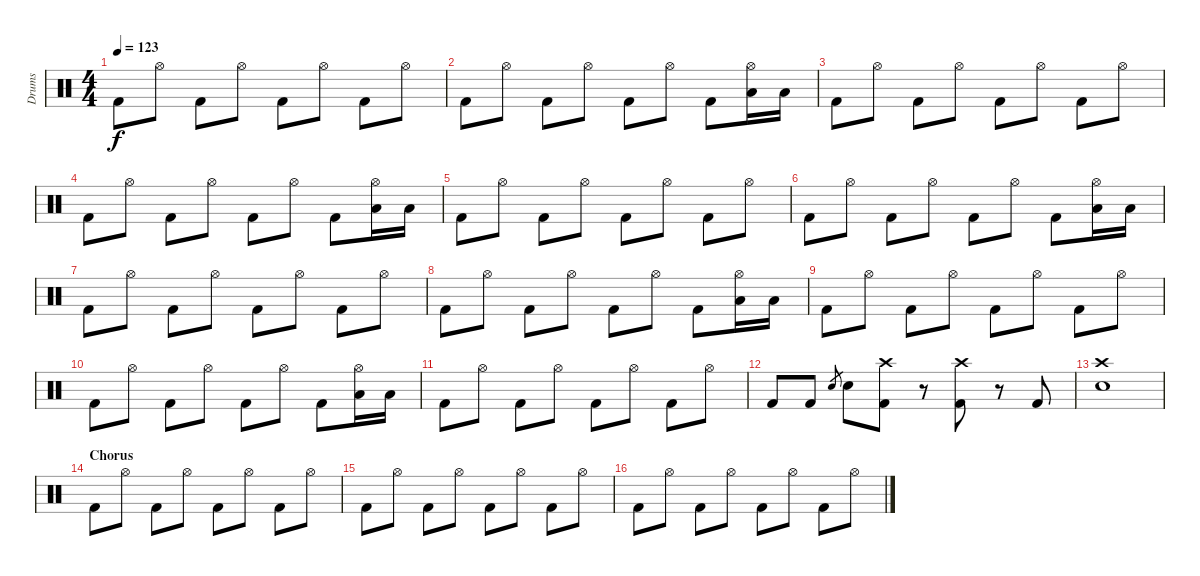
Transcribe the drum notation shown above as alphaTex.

\track ("Drums" "Drums") {instrument percussion}
\staff {score}
\articulation defaults
\ts (4 4)
\tempo 123
\clef neutral
\ks c "Kick (hit) 2".8{dy f} "Hi-Hat (open)".8 "Kick (hit) 2".8 "Hi-Hat (open)".8 "Kick (hit) 2".8 "Hi-Hat (open)".8 "Kick (hit) 2".8 "Hi-Hat (open)".8
|
"Kick (hit) 2".8 "Hi-Hat (open)".8 "Kick (hit) 2".8 "Hi-Hat (open)".8 "Kick (hit) 2".8 "Hi-Hat (open)".8 "Kick (hit) 2".8 ("Hi-Hat (open)" "Low Tom (hit)").16 "Low Tom (hit)".16 |
"Kick (hit) 2".8 "Hi-Hat (open)".8 "Kick (hit) 2".8 "Hi-Hat (open)".8 "Kick (hit) 2".8 "Hi-Hat (open)".8 "Kick (hit) 2".8 "Hi-Hat (open)".8 |
"Kick (hit) 2".8 "Hi-Hat (open)".8 "Kick (hit) 2".8 "Hi-Hat (open)".8 "Kick (hit) 2".8 "Hi-Hat (open)".8 "Kick (hit) 2".8 ("Hi-Hat (open)" "Low Tom (hit)").16 "Low Tom (hit)".16 |
"Kick (hit) 2".8 "Hi-Hat (open)".8 "Kick (hit) 2".8 "Hi-Hat (open)".8 "Kick (hit) 2".8 "Hi-Hat (open)".8 "Kick (hit) 2".8 "Hi-Hat (open)".8 |
"Kick (hit) 2".8 "Hi-Hat (open)".8 "Kick (hit) 2".8 "Hi-Hat (open)".8 "Kick (hit) 2".8 "Hi-Hat (open)".8 "Kick (hit) 2".8 ("Hi-Hat (open)" "Low Tom (hit)").16 "Low Tom (hit)".16 |
"Kick (hit) 2".8 "Hi-Hat (open)".8 "Kick (hit) 2".8 "Hi-Hat (open)".8 "Kick (hit) 2".8 "Hi-Hat (open)".8 "Kick (hit) 2".8 "Hi-Hat (open)".8 |
"Kick (hit) 2".8 "Hi-Hat (open)".8 "Kick (hit) 2".8 "Hi-Hat (open)".8 "Kick (hit) 2".8 "Hi-Hat (open)".8 "Kick (hit) 2".8 ("Hi-Hat (open)" "Low Tom (hit)").16 "Low Tom (hit)".16 |
"Kick (hit) 2".8 "Hi-Hat (open)".8 "Kick (hit) 2".8 "Hi-Hat (open)".8 "Kick (hit) 2".8 "Hi-Hat (open)".8 "Kick (hit) 2".8 "Hi-Hat (open)".8 |
"Kick (hit) 2".8 "Hi-Hat (open)".8 "Kick (hit) 2".8 "Hi-Hat (open)".8 "Kick (hit) 2".8 "Hi-Hat (open)".8 "Kick (hit) 2".8 ("Hi-Hat (open)" "Low Tom (hit)").16 "Low Tom (hit)".16 |
"Kick (hit) 2".8 "Hi-Hat (open)".8 "Kick (hit) 2".8 "Hi-Hat (open)".8 "Kick (hit) 2".8 "Hi-Hat (open)".8 "Kick (hit) 2".8 "Hi-Hat (open)".8 |
"Kick (hit) 2".8 "Kick (hit) 2".8 "Electric Snare (hit)".8{gr} "Electric Snare (hit)".8 ("Crash high (hit)" "Kick (hit) 2").8 r.8 ("Crash high (hit)" "Kick (hit) 2").8 r.8 "Kick (hit) 2".8 |
("Crash high (hit)" "Electric Snare (hit)").1 |
\section ("" "Chorus")
"Kick (hit) 2".8 "Hi-Hat (open)".8 "Kick (hit) 2".8 "Hi-Hat (open)".8 "Kick (hit) 2".8 "Hi-Hat (open)".8 "Kick (hit) 2".8 "Hi-Hat (open)".8 |
"Kick (hit) 2".8 "Hi-Hat (open)".8 "Kick (hit) 2".8 "Hi-Hat (open)".8 "Kick (hit) 2".8 "Hi-Hat (open)".8 "Kick (hit) 2".8 "Hi-Hat (open)".8 |
"Kick (hit) 2".8 "Hi-Hat (open)".8 "Kick (hit) 2".8 "Hi-Hat (open)".8 "Kick (hit) 2".8 "Hi-Hat (open)".8 "Kick (hit) 2".8 "Hi-Hat (open)".8
